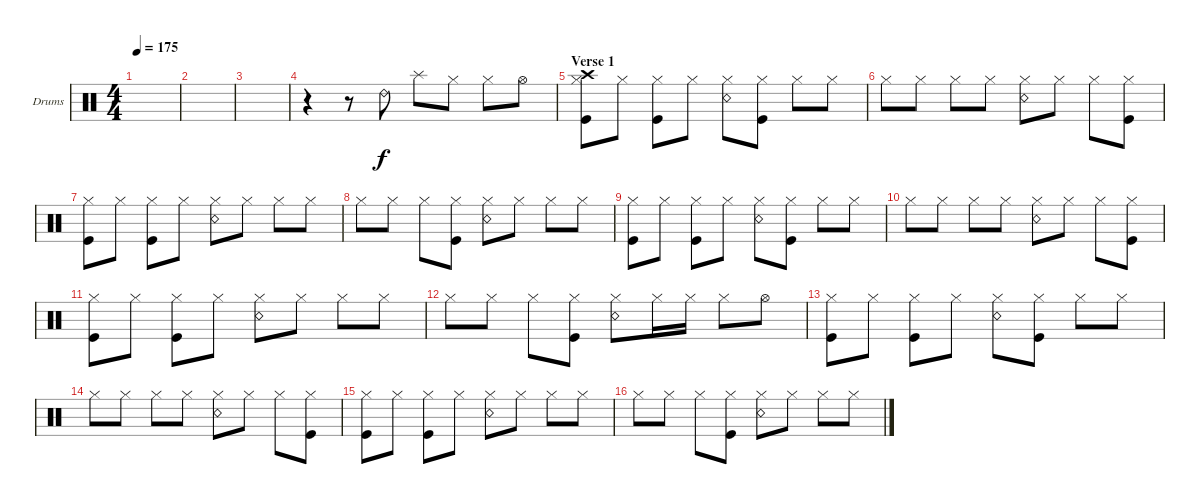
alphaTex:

\bracketExtendMode groupsimilarinstruments
\firstSystemTrackNameOrientation horizontal
\otherSystemsTrackNameOrientation horizontal
\track ("Kanky Lora" "Drums") {instrument percussion}
\staff {score}
\articulation defaults
\ts (4 4)
\tempo 175
\clef neutral
\ks c
|
|
|
r.4 r.8 "Ride (bell) 2".8 "Splash (hit)".8 "Hi-Hat (closed)".8 "Hi-Hat (closed)".8 "Hi-Hat (open)".8 |
\section ("" "Verse 1")
("Hi-Hat (closed)" "Kick (hit)" "Crash high (hit)").8 "Hi-Hat (closed)".8 ("Hi-Hat (closed)" "Kick (hit)").8 "Hi-Hat (closed)".8 ("Hi-Hat (closed)" "Snare (rim shot)").8 ("Hi-Hat (closed)" "Kick (hit)").8 "Hi-Hat (closed)".8 "Hi-Hat (closed)".8 |
"Hi-Hat (closed)".8 "Hi-Hat (closed)".8 "Hi-Hat (closed)".8 "Hi-Hat (closed)".8 ("Hi-Hat (closed)" "Snare (rim shot)").8 "Hi-Hat (closed)".8 "Hi-Hat (closed)".8 ("Hi-Hat (closed)" "Kick (hit)").8 |
("Hi-Hat (closed)" "Kick (hit)").8 "Hi-Hat (closed)".8 ("Hi-Hat (closed)" "Kick (hit)").8 "Hi-Hat (closed)".8 ("Hi-Hat (closed)" "Snare (rim shot)").8 "Hi-Hat (closed)".8 "Hi-Hat (closed)".8 "Hi-Hat (closed)".8 |
"Hi-Hat (closed)".8 "Hi-Hat (closed)".8 "Hi-Hat (closed)".8 ("Hi-Hat (closed)" "Kick (hit)").8 ("Hi-Hat (closed)" "Snare (rim shot)").8 "Hi-Hat (closed)".8 "Hi-Hat (closed)".8 "Hi-Hat (closed)".8 |
("Hi-Hat (closed)" "Kick (hit)").8 "Hi-Hat (closed)".8 ("Hi-Hat (closed)" "Kick (hit)").8 "Hi-Hat (closed)".8 ("Hi-Hat (closed)" "Snare (rim shot)").8 ("Hi-Hat (closed)" "Kick (hit)").8 "Hi-Hat (closed)".8 "Hi-Hat (closed)".8 |
"Hi-Hat (closed)".8 "Hi-Hat (closed)".8 "Hi-Hat (closed)".8 "Hi-Hat (closed)".8 ("Hi-Hat (closed)" "Snare (rim shot)").8 "Hi-Hat (closed)".8 "Hi-Hat (closed)".8 ("Hi-Hat (closed)" "Kick (hit)").8 |
("Hi-Hat (closed)" "Kick (hit)").8 "Hi-Hat (closed)".8 ("Hi-Hat (closed)" "Kick (hit)").8 "Hi-Hat (closed)".8 ("Hi-Hat (closed)" "Snare (rim shot)").8 "Hi-Hat (closed)".8 "Hi-Hat (closed)".8 "Hi-Hat (closed)".8 |
"Hi-Hat (closed)".8 "Hi-Hat (closed)".8 "Hi-Hat (closed)".8 ("Hi-Hat (closed)" "Kick (hit)").8 ("Hi-Hat (closed)" "Snare (rim shot)").8 "Hi-Hat (closed)".16 "Hi-Hat (closed)".16 "Hi-Hat (closed)".8 "Hi-Hat (open)".8 |
("Hi-Hat (closed)" "Kick (hit)").8 "Hi-Hat (closed)".8 ("Hi-Hat (closed)" "Kick (hit)").8 "Hi-Hat (closed)".8 ("Hi-Hat (closed)" "Snare (rim shot)").8 ("Hi-Hat (closed)" "Kick (hit)").8 "Hi-Hat (closed)".8 "Hi-Hat (closed)".8 |
"Hi-Hat (closed)".8 "Hi-Hat (closed)".8 "Hi-Hat (closed)".8 "Hi-Hat (closed)".8 ("Hi-Hat (closed)" "Snare (rim shot)").8 "Hi-Hat (closed)".8 "Hi-Hat (closed)".8 ("Hi-Hat (closed)" "Kick (hit)").8 |
("Hi-Hat (closed)" "Kick (hit)").8 "Hi-Hat (closed)".8 ("Hi-Hat (closed)" "Kick (hit)").8 "Hi-Hat (closed)".8 ("Hi-Hat (closed)" "Snare (rim shot)").8 "Hi-Hat (closed)".8 "Hi-Hat (closed)".8 "Hi-Hat (closed)".8 |
"Hi-Hat (closed)".8 "Hi-Hat (closed)".8 "Hi-Hat (closed)".8 ("Hi-Hat (closed)" "Kick (hit)").8 ("Hi-Hat (closed)" "Snare (rim shot)").8 "Hi-Hat (closed)".8 "Hi-Hat (closed)".8 "Hi-Hat (closed)".8
